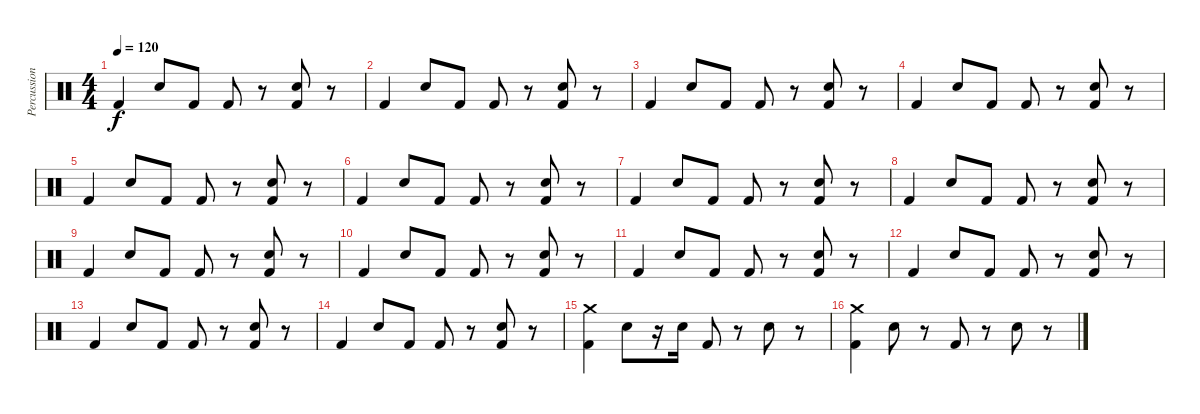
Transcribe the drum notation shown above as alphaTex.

\track ("Percussion" "Percussion") {instrument percussion}
\staff {score}
\articulation defaults
\ts (4 4)
\tempo 120
\clef neutral
\ks c "Kick (hit) 2".4{dy f} "Hand Clap (hit)".8 "Kick (hit) 2".8 "Kick (hit) 2".8
r.8 ("Hand Clap (hit)" "Kick (hit) 2").8 r.8 |
"Kick (hit) 2".4 "Hand Clap (hit)".8 "Kick (hit) 2".8 "Kick (hit) 2".8 r.8 ("Hand Clap (hit)" "Kick (hit) 2").8 r.8 |
"Kick (hit) 2".4 "Hand Clap (hit)".8 "Kick (hit) 2".8 "Kick (hit) 2".8 r.8 ("Hand Clap (hit)" "Kick (hit) 2").8 r.8 |
"Kick (hit) 2".4 "Hand Clap (hit)".8 "Kick (hit) 2".8 "Kick (hit) 2".8 r.8 ("Hand Clap (hit)" "Kick (hit) 2").8 r.8 |
"Kick (hit) 2".4 "Hand Clap (hit)".8 "Kick (hit) 2".8 "Kick (hit) 2".8 r.8 ("Hand Clap (hit)" "Kick (hit) 2").8 r.8 |
"Kick (hit) 2".4 "Hand Clap (hit)".8 "Kick (hit) 2".8 "Kick (hit) 2".8 r.8 ("Hand Clap (hit)" "Kick (hit) 2").8 r.8 |
"Kick (hit) 2".4 "Hand Clap (hit)".8 "Kick (hit) 2".8 "Kick (hit) 2".8 r.8 ("Hand Clap (hit)" "Kick (hit) 2").8 r.8 |
"Kick (hit) 2".4 "Hand Clap (hit)".8 "Kick (hit) 2".8 "Kick (hit) 2".8 r.8 ("Hand Clap (hit)" "Kick (hit) 2").8 r.8 |
"Kick (hit) 2".4 "Hand Clap (hit)".8 "Kick (hit) 2".8 "Kick (hit) 2".8 r.8 ("Hand Clap (hit)" "Kick (hit) 2").8 r.8 |
"Kick (hit) 2".4 "Hand Clap (hit)".8 "Kick (hit) 2".8 "Kick (hit) 2".8 r.8 ("Hand Clap (hit)" "Kick (hit) 2").8 r.8 |
"Kick (hit) 2".4 "Hand Clap (hit)".8 "Kick (hit) 2".8 "Kick (hit) 2".8 r.8 ("Hand Clap (hit)" "Kick (hit) 2").8 r.8 |
"Kick (hit) 2".4 "Hand Clap (hit)".8 "Kick (hit) 2".8 "Kick (hit) 2".8 r.8 ("Hand Clap (hit)" "Kick (hit) 2").8 r.8 |
"Kick (hit) 2".4 "Hand Clap (hit)".8 "Kick (hit) 2".8 "Kick (hit) 2".8 r.8 ("Hand Clap (hit)" "Kick (hit) 2").8 r.8 |
"Kick (hit) 2".4 "Hand Clap (hit)".8 "Kick (hit) 2".8 "Kick (hit) 2".8 r.8 ("Hand Clap (hit)" "Kick (hit) 2").8 r.8 |
("Kick (hit) 2" "Crash medium (hit)").4 "Hand Clap (hit)".8 r.16 "Hand Clap (hit)".16 "Kick (hit) 2".8 r.8 "Hand Clap (hit)".8 r.8 |
("Kick (hit) 2" "Crash medium (hit)").4 "Hand Clap (hit)".8 r.8 "Kick (hit) 2".8 r.8 "Hand Clap (hit)".8 r.8
